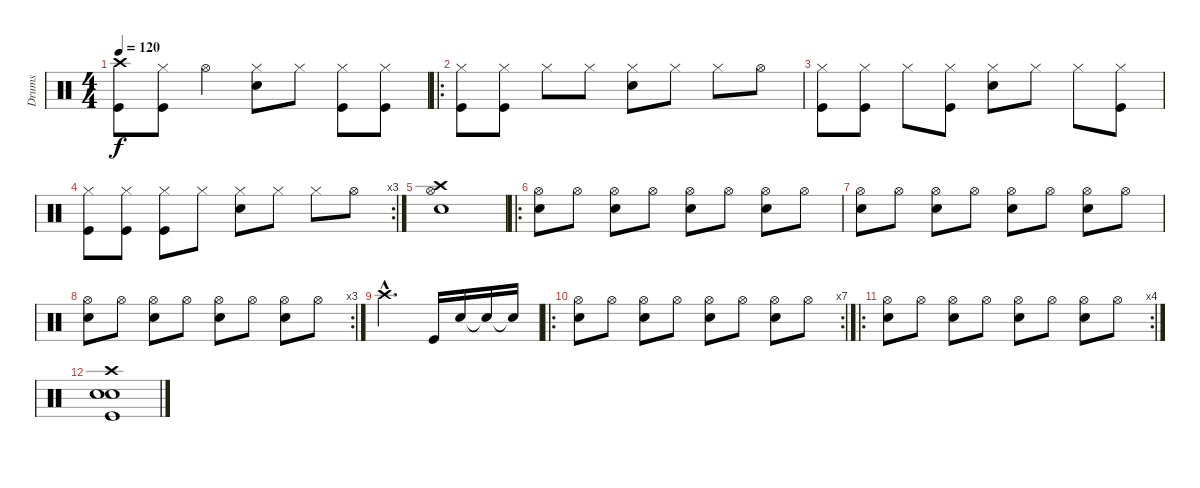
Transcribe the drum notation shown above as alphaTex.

\track ("Drums" "Drums") {instrument percussion}
\staff {score}
\articulation defaults
\ts (4 4)
\tempo 120
\clef neutral
\ks c
("Crash high (hit)" "Kick (hit)").8{dy f} ("Hi-Hat (closed)" "Kick (hit)").8 "Hi-Hat (open)".4 ("Hi-Hat (closed)" "Electric Snare (hit)").8 "Hi-Hat (closed)".8 ("Hi-Hat (closed)" "Kick (hit)").8 ("Hi-Hat (closed)" "Kick (hit)").8 |
\ro
("Hi-Hat (closed)" "Kick (hit)").8 ("Hi-Hat (closed)" "Kick (hit)").8 "Hi-Hat (closed)".8 "Hi-Hat (closed)".8 ("Hi-Hat (closed)" "Electric Snare (hit)").8 "Hi-Hat (closed)".8 "Hi-Hat (closed)".8 "Hi-Hat (open)".8 |
("Hi-Hat (closed)" "Kick (hit)").8 ("Hi-Hat (closed)" "Kick (hit)").8 "Hi-Hat (closed)".8 ("Hi-Hat (closed)" "Kick (hit)").8 ("Hi-Hat (closed)" "Electric Snare (hit)").8 "Hi-Hat (closed)".8 "Hi-Hat (closed)".8 ("Hi-Hat (closed)" "Kick (hit)").8 |
\rc 3
("Hi-Hat (closed)" "Kick (hit)").8 ("Hi-Hat (closed)" "Kick (hit)").8 ("Hi-Hat (closed)" "Kick (hit)").8 "Hi-Hat (closed)".8 ("Hi-Hat (closed)" "Electric Snare (hit)").8 "Hi-Hat (closed)".8 "Hi-Hat (closed)".8 "Hi-Hat (open)".8 |
("Crash high (hit)" "Hi-Hat (open)" "Snare (hit) 2").1 |
\ro
("Hi-Hat (open)" "Snare (hit) 2").8 "Hi-Hat (open)".8 ("Hi-Hat (open)" "Snare (hit) 2").8 "Hi-Hat (open)".8 ("Hi-Hat (open)" "Snare (hit) 2").8 "Hi-Hat (open)".8 ("Hi-Hat (open)" "Snare (hit) 2").8 "Hi-Hat (open)".8 |
("Hi-Hat (open)" "Snare (hit) 2").8 "Hi-Hat (open)".8 ("Hi-Hat (open)" "Snare (hit) 2").8 "Hi-Hat (open)".8 ("Hi-Hat (open)" "Snare (hit) 2").8 "Hi-Hat (open)".8 ("Hi-Hat (open)" "Snare (hit) 2").8 "Hi-Hat (open)".8 |
\rc 3
("Hi-Hat (open)" "Snare (hit) 2").8 "Hi-Hat (open)".8 ("Hi-Hat (open)" "Snare (hit) 2").8 "Hi-Hat (open)".8 ("Hi-Hat (open)" "Snare (hit) 2").8 "Hi-Hat (open)".8 ("Hi-Hat (open)" "Snare (hit) 2").8 "Hi-Hat (open)".8 |
"Crash high (hit)"{hac}.2{d} "Kick (hit)".16 "Snare (hit) 2".16 "Snare (hit)"{t}.16 "Snare (hit)"{t}.16 |
\ro
\rc 7
("Hi-Hat (open)" "Snare (hit) 2").8 "Hi-Hat (open)".8 ("Hi-Hat (open)" "Snare (hit) 2").8 "Hi-Hat (open)".8 ("Hi-Hat (open)" "Snare (hit) 2").8 "Hi-Hat (open)".8 ("Hi-Hat (open)" "Snare (hit) 2").8 "Hi-Hat (open)".8 |
\ro
\rc 4
("Hi-Hat (open)" "Snare (hit) 2").8 "Hi-Hat (open)".8 ("Hi-Hat (open)" "Snare (hit) 2").8 "Hi-Hat (open)".8 ("Hi-Hat (open)" "Snare (hit) 2").8 "Hi-Hat (open)".8 ("Hi-Hat (open)" "Snare (hit) 2").8 "Hi-Hat (open)".8 |
("Crash high (hit)" "Kick (hit)" "Snare (hit) 2" "Electric Snare (hit)").1
